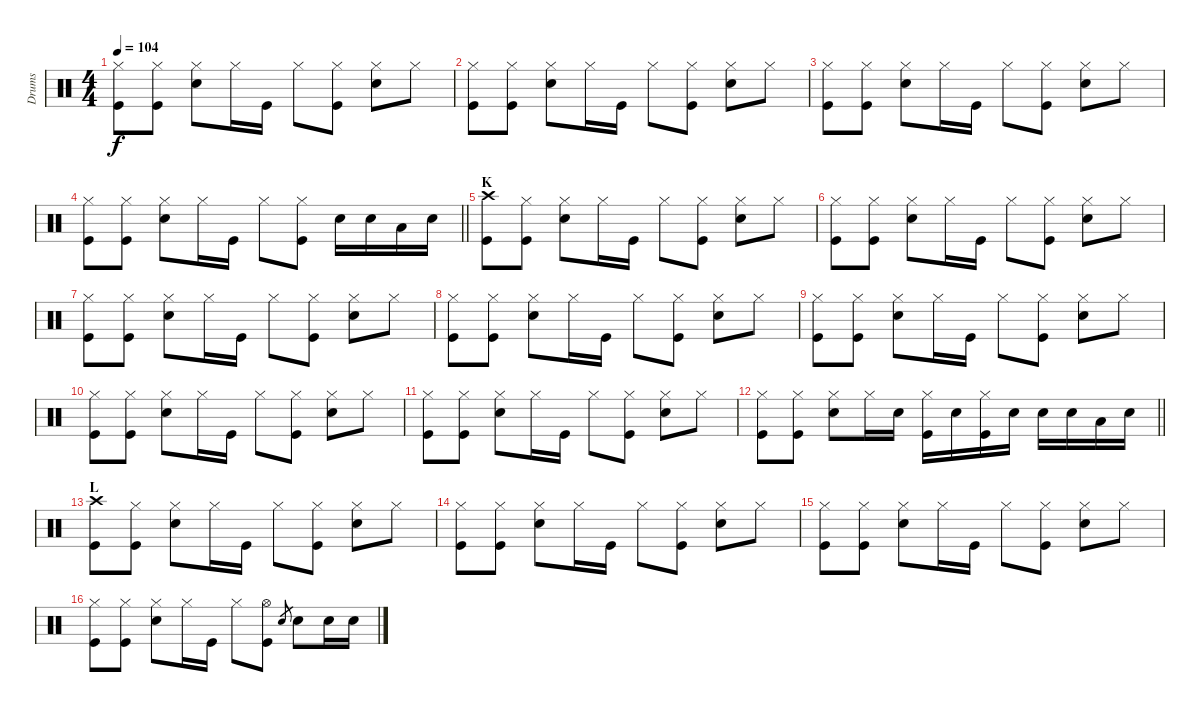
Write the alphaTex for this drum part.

\track ("Drums" "Drums") {instrument percussion}
\staff {score}
\articulation defaults
\ts (4 4)
\tempo 104
\clef neutral
\ks c
("Hi-Hat (closed)" "Kick (hit)").8{dy f} ("Hi-Hat (closed)" "Kick (hit)").8 ("Hi-Hat (closed)" "Electric Snare (hit)").8 "Hi-Hat (closed)".16 "Kick (hit)".16 "Hi-Hat (closed)".8 ("Hi-Hat (closed)" "Kick (hit)").8 ("Hi-Hat (closed)" "Electric Snare (hit)").8 "Hi-Hat (closed)".8 |
("Hi-Hat (closed)" "Kick (hit)").8 ("Hi-Hat (closed)" "Kick (hit)").8 ("Hi-Hat (closed)" "Electric Snare (hit)").8 "Hi-Hat (closed)".16 "Kick (hit)".16 "Hi-Hat (closed)".8 ("Hi-Hat (closed)" "Kick (hit)").8 ("Hi-Hat (closed)" "Electric Snare (hit)").8 "Hi-Hat (closed)".8 |
("Hi-Hat (closed)" "Kick (hit)").8 ("Hi-Hat (closed)" "Kick (hit)").8 ("Hi-Hat (closed)" "Electric Snare (hit)").8 "Hi-Hat (closed)".16 "Kick (hit)".16 "Hi-Hat (closed)".8 ("Hi-Hat (closed)" "Kick (hit)").8 ("Hi-Hat (closed)" "Electric Snare (hit)").8 "Hi-Hat (closed)".8 |
\barLineRight lightlight
("Hi-Hat (closed)" "Kick (hit)").8 ("Hi-Hat (closed)" "Kick (hit)").8 ("Hi-Hat (closed)" "Electric Snare (hit)").8 "Hi-Hat (closed)".16 "Kick (hit)".16 "Hi-Hat (closed)".8 ("Hi-Hat (closed)" "Kick (hit)").8 "Electric Snare (hit)".16 "Electric Snare (hit)".16 "Low Tom (hit)".16 "Electric Snare (hit)".16 |
\section ("" "K")
("Crash high (hit)" "Kick (hit)").8 ("Hi-Hat (closed)" "Kick (hit)").8 ("Hi-Hat (closed)" "Electric Snare (hit)").8 "Hi-Hat (closed)".16 "Kick (hit)".16 "Hi-Hat (closed)".8 ("Hi-Hat (closed)" "Kick (hit)").8 ("Hi-Hat (closed)" "Electric Snare (hit)").8 "Hi-Hat (closed)".8 |
("Hi-Hat (closed)" "Kick (hit)").8 ("Hi-Hat (closed)" "Kick (hit)").8 ("Hi-Hat (closed)" "Electric Snare (hit)").8 "Hi-Hat (closed)".16 "Kick (hit)".16 "Hi-Hat (closed)".8 ("Hi-Hat (closed)" "Kick (hit)").8 ("Hi-Hat (closed)" "Electric Snare (hit)").8 "Hi-Hat (closed)".8 |
("Hi-Hat (closed)" "Kick (hit)").8 ("Hi-Hat (closed)" "Kick (hit)").8 ("Hi-Hat (closed)" "Electric Snare (hit)").8 "Hi-Hat (closed)".16 "Kick (hit)".16 "Hi-Hat (closed)".8 ("Hi-Hat (closed)" "Kick (hit)").8 ("Hi-Hat (closed)" "Electric Snare (hit)").8 "Hi-Hat (closed)".8 |
("Hi-Hat (closed)" "Kick (hit)").8 ("Hi-Hat (closed)" "Kick (hit)").8 ("Hi-Hat (closed)" "Electric Snare (hit)").8 "Hi-Hat (closed)".16 "Kick (hit)".16 "Hi-Hat (closed)".8 ("Hi-Hat (closed)" "Kick (hit)").8 ("Hi-Hat (closed)" "Electric Snare (hit)").8 "Hi-Hat (closed)".8 |
("Hi-Hat (closed)" "Kick (hit)").8 ("Hi-Hat (closed)" "Kick (hit)").8 ("Hi-Hat (closed)" "Electric Snare (hit)").8 "Hi-Hat (closed)".16 "Kick (hit)".16 "Hi-Hat (closed)".8 ("Hi-Hat (closed)" "Kick (hit)").8 ("Hi-Hat (closed)" "Electric Snare (hit)").8 "Hi-Hat (closed)".8 |
("Hi-Hat (closed)" "Kick (hit)").8 ("Hi-Hat (closed)" "Kick (hit)").8 ("Hi-Hat (closed)" "Electric Snare (hit)").8 "Hi-Hat (closed)".16 "Kick (hit)".16 "Hi-Hat (closed)".8 ("Hi-Hat (closed)" "Kick (hit)").8 ("Hi-Hat (closed)" "Electric Snare (hit)").8 "Hi-Hat (closed)".8 |
("Hi-Hat (closed)" "Kick (hit)").8 ("Hi-Hat (closed)" "Kick (hit)").8 ("Hi-Hat (closed)" "Electric Snare (hit)").8 "Hi-Hat (closed)".16 "Kick (hit)".16 "Hi-Hat (closed)".8 ("Hi-Hat (closed)" "Kick (hit)").8 ("Hi-Hat (closed)" "Electric Snare (hit)").8 "Hi-Hat (closed)".8 |
\barLineRight lightlight
("Hi-Hat (closed)" "Kick (hit)").8 ("Hi-Hat (closed)" "Kick (hit)").8 ("Hi-Hat (closed)" "Electric Snare (hit)").8 "Hi-Hat (closed)".16 "Electric Snare (hit)".16 ("Hi-Hat (closed)" "Kick (hit)").16 "Electric Snare (hit)".16 ("Hi-Hat (closed)" "Kick (hit)").16 "Electric Snare (hit)".16 "Electric Snare (hit)".16 "Electric Snare (hit)".16 "Low Tom (hit)".16 "Electric Snare (hit)".16 |
\section ("" "L")
("Crash high (hit)" "Kick (hit)").8 ("Hi-Hat (closed)" "Kick (hit)").8 ("Hi-Hat (closed)" "Electric Snare (hit)").8 "Hi-Hat (closed)".16 "Kick (hit)".16 "Hi-Hat (closed)".8 ("Hi-Hat (closed)" "Kick (hit)").8 ("Hi-Hat (closed)" "Electric Snare (hit)").8 "Hi-Hat (closed)".8 |
("Hi-Hat (closed)" "Kick (hit)").8 ("Hi-Hat (closed)" "Kick (hit)").8 ("Hi-Hat (closed)" "Electric Snare (hit)").8 "Hi-Hat (closed)".16 "Kick (hit)".16 "Hi-Hat (closed)".8 ("Hi-Hat (closed)" "Kick (hit)").8 ("Hi-Hat (closed)" "Electric Snare (hit)").8 "Hi-Hat (closed)".8 |
("Hi-Hat (closed)" "Kick (hit)").8 ("Hi-Hat (closed)" "Kick (hit)").8 ("Hi-Hat (closed)" "Electric Snare (hit)").8 "Hi-Hat (closed)".16 "Kick (hit)".16 "Hi-Hat (closed)".8 ("Hi-Hat (closed)" "Kick (hit)").8 ("Hi-Hat (closed)" "Electric Snare (hit)").8 "Hi-Hat (closed)".8 |
("Hi-Hat (closed)" "Kick (hit)").8 ("Hi-Hat (closed)" "Kick (hit)").8 ("Hi-Hat (closed)" "Electric Snare (hit)").8 "Hi-Hat (closed)".16 "Kick (hit)".16 "Hi-Hat (closed)".8 ("Hi-Hat (open)" "Kick (hit)").8 "Electric Snare (hit)".8{gr} "Electric Snare (hit)".8 "Electric Snare (hit)".16 "Electric Snare (hit)".16
